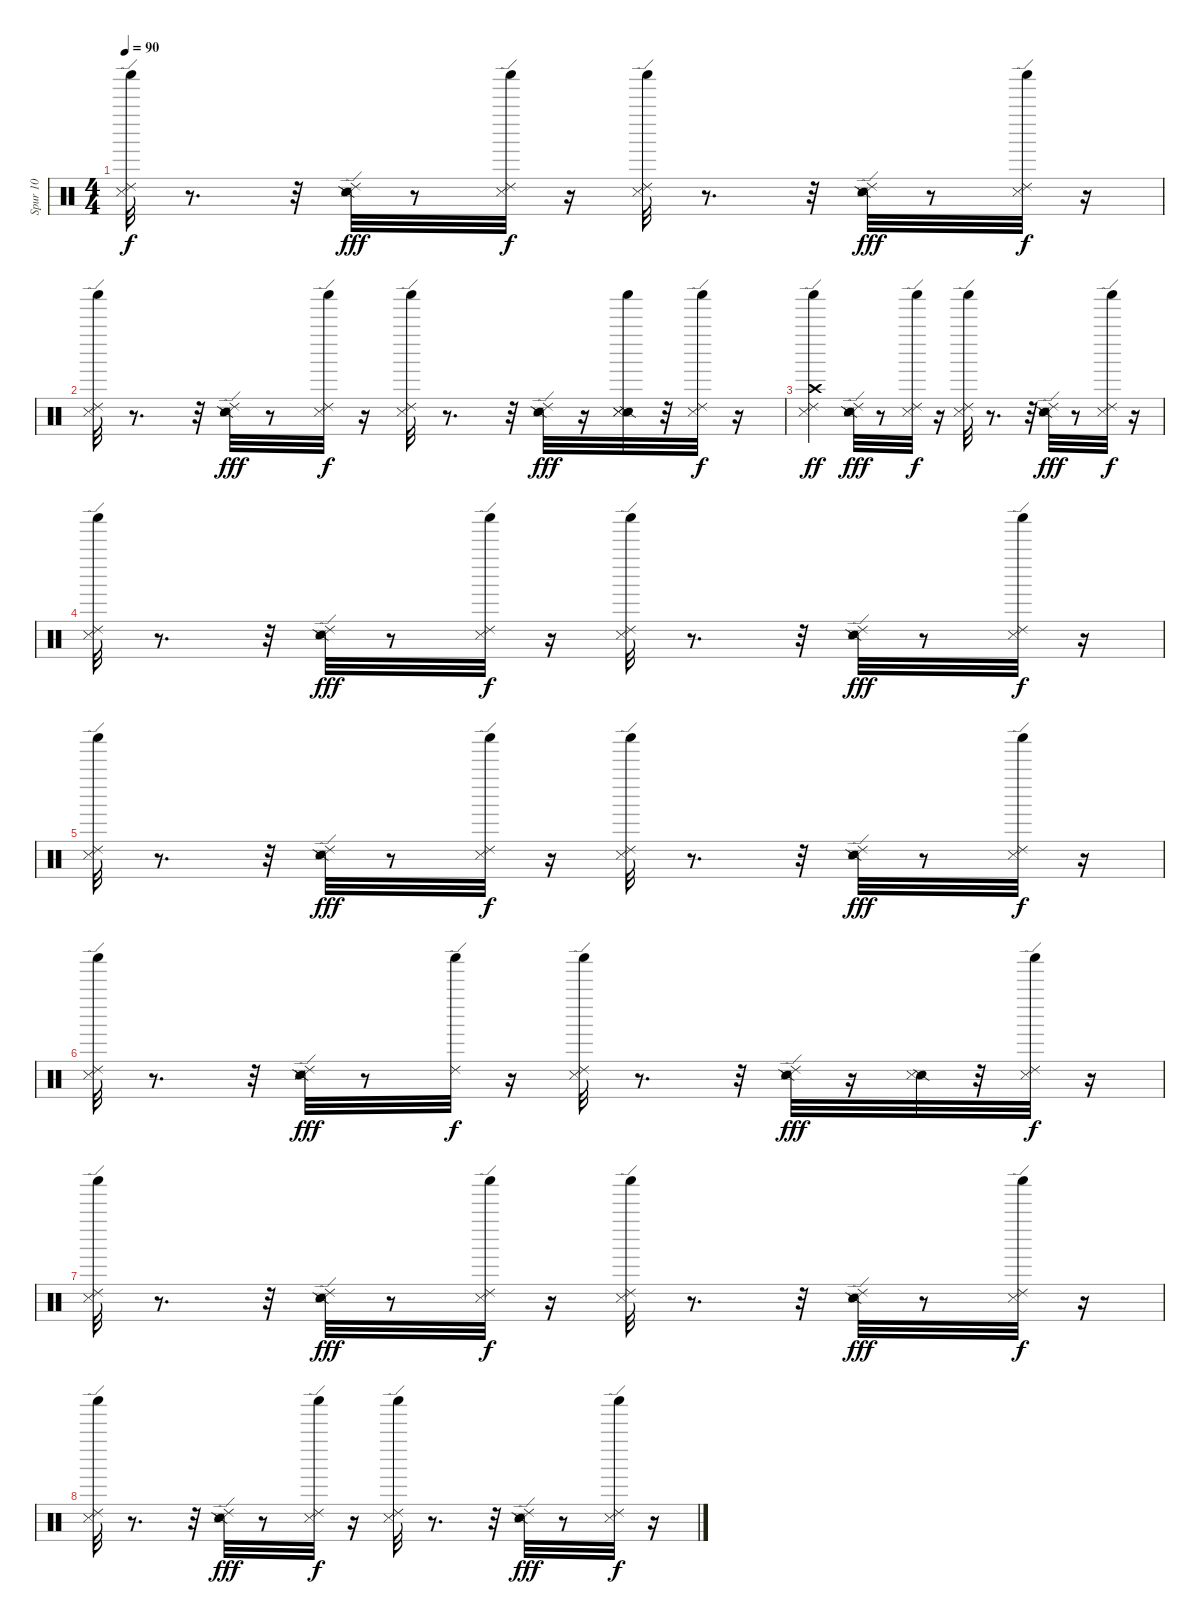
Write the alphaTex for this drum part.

\track ("Spur 10" "Spur 10") {instrument percussion}
\staff {score}
\articulation defaults
\ts (4 4)
\tempo 90
\clef neutral
\ks c
("Shaker (hit)" "Ride (edge) 2" "Metronome (hit)").32{dy f} r.8{d} r.32 ("Ride (edge) 2" "Snare (side stick) 2" "Snare (side stick) 3").32{dy fff} r.8 ("Shaker (hit)" "Ride (edge) 2" "Metronome (hit)").32{dy f} r.16 ("Shaker (hit)" "Ride (edge) 2" "Metronome (hit)").32 r.8{d} r.32 ("Ride (edge) 2" "Snare (side stick) 2" "Snare (side stick) 3").32{dy fff} r.8 ("Ride (edge) 2" "Shaker (hit)" "Metronome (hit)").32{dy f} r.16 |
("Shaker (hit)" "Ride (edge) 2" "Metronome (hit)").32 r.8{d} r.32 ("Ride (edge) 2" "Snare (side stick) 2" "Snare (side stick) 3").32{dy fff} r.8 ("Ride (edge) 2" "Shaker (hit)" "Metronome (hit)").32{dy f} r.16 ("Ride (edge) 2" "Shaker (hit)" "Metronome (hit)").32 r.8{d} r.32 ("Ride (edge) 2" "Snare (side stick) 2" "Snare (side stick) 3").32{dy fff} r.16 ("Shaker (hit)" "Snare (side stick) 2" "Metronome (hit)" "Snare (side stick) 3").32 r.32 ("Shaker (hit)" "Ride (edge) 2" "Metronome (hit)").32{dy f} r.16 |
("Ride (edge) 2" "Shaker (hit)" "Metronome (hit)" "Crash high (hit)").4{dy ff} ("Ride (edge) 2" "Snare (side stick) 2" "Snare (side stick) 3").32{dy fff} r.8 ("Ride (edge) 2" "Shaker (hit)" "Metronome (hit)").32{dy f} r.16 ("Ride (edge) 2" "Shaker (hit)" "Metronome (hit)").32 r.8{d} r.32 ("Ride (edge) 2" "Snare (side stick) 2" "Snare (side stick) 3").32{dy fff} r.8 ("Ride (edge) 2" "Shaker (hit)" "Metronome (hit)").32{dy f} r.16 |
("Ride (edge) 2" "Shaker (hit)" "Metronome (hit)").32 r.8{d} r.32 ("Ride (edge) 2" "Snare (side stick) 2" "Snare (side stick) 3").32{dy fff} r.8 ("Shaker (hit)" "Ride (edge) 2" "Metronome (hit)").32{dy f} r.16 ("Ride (edge) 2" "Shaker (hit)" "Metronome (hit)").32 r.8{d} r.32 ("Ride (edge) 2" "Snare (side stick) 2" "Snare (side stick) 3").32{dy fff} r.8 ("Ride (edge) 2" "Shaker (hit)" "Metronome (hit)").32{dy f} r.16 |
("Shaker (hit)" "Ride (edge) 2" "Metronome (hit)").32 r.8{d} r.32 ("Ride (edge) 2" "Snare (side stick) 2" "Snare (side stick) 3").32{dy fff} r.8 ("Ride (edge) 2" "Shaker (hit)" "Metronome (hit)").32{dy f} r.16 ("Ride (edge) 2" "Shaker (hit)" "Metronome (hit)").32 r.8{d} r.32 ("Ride (edge) 2" "Snare (side stick) 2" "Snare (side stick) 3").32{dy fff} r.8 ("Shaker (hit)" "Ride (edge) 2" "Metronome (hit)").32{dy f} r.16 |
("Ride (edge) 2" "Shaker (hit)" "Metronome (hit)").32 r.8{d} r.32 ("Ride (edge) 2" "Snare (side stick) 2" "Metronome (hit)" "Snare (side stick) 3").32{dy fff} r.8 ("Ride (edge) 2" "Shaker (hit)").32{dy f} r.16 ("Ride (edge) 2" "Shaker (hit)" "Metronome (hit)").32 r.8{d} r.32 ("Ride (edge) 2" "Snare (side stick) 2" "Snare (side stick) 3").32{dy fff} r.16 ("Snare (side stick) 2" "Snare (side stick) 3").32 r.32 ("Ride (edge) 2" "Shaker (hit)" "Metronome (hit)").32{dy f} r.16 |
("Ride (edge) 2" "Shaker (hit)" "Metronome (hit)").32 r.8{d} r.32 ("Ride (edge) 2" "Snare (side stick) 2" "Snare (side stick) 3").32{dy fff} r.8 ("Shaker (hit)" "Ride (edge) 2" "Metronome (hit)").32{dy f} r.16 ("Ride (edge) 2" "Shaker (hit)" "Metronome (hit)").32 r.8{d} r.32 ("Ride (edge) 2" "Snare (side stick) 2" "Snare (side stick) 3").32{dy fff} r.8 ("Ride (edge) 2" "Shaker (hit)" "Metronome (hit)").32{dy f} r.16 |
("Ride (edge) 2" "Shaker (hit)" "Metronome (hit)").32 r.8{d} r.32 ("Ride (edge) 2" "Snare (side stick) 2" "Snare (side stick) 3").32{dy fff} r.8 ("Ride (edge) 2" "Shaker (hit)" "Metronome (hit)").32{dy f} r.16 ("Ride (edge) 2" "Shaker (hit)" "Metronome (hit)").32 r.8{d} r.32 ("Ride (edge) 2" "Snare (side stick) 2" "Snare (side stick) 3").32{dy fff} r.8 ("Shaker (hit)" "Ride (edge) 2" "Metronome (hit)").32{dy f} r.16
